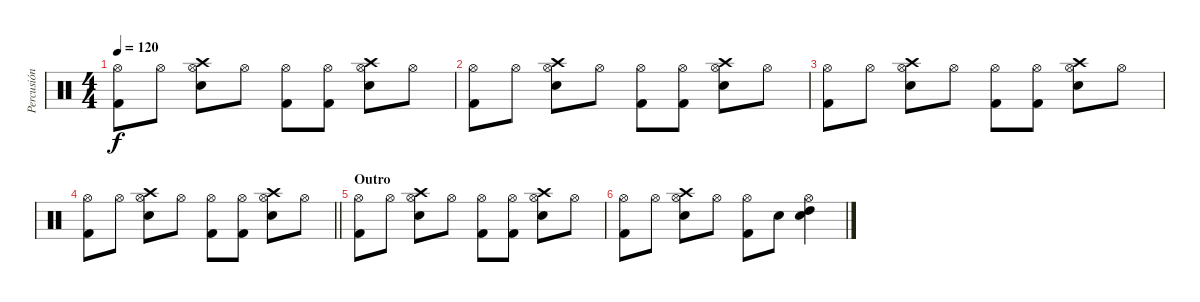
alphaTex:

\track ("Percusión" "Percusión") {instrument percussion}
\staff {score}
\articulation defaults
\ts (4 4)
\tempo 120
\clef neutral
\ks c
("Hi-Hat (open)" "Kick (hit) 2").8{dy f} "Hi-Hat (open)".8 ("Hi-Hat (open)" "Electric Snare (hit)" "Crash high (hit)").8 "Hi-Hat (open)".8 ("Hi-Hat (open)" "Kick (hit) 2").8 ("Hi-Hat (open)" "Kick (hit) 2").8 ("Hi-Hat (open)" "Electric Snare (hit)" "Crash high (hit)").8 "Hi-Hat (open)".8 |
("Hi-Hat (open)" "Kick (hit) 2").8 "Hi-Hat (open)".8 ("Hi-Hat (open)" "Electric Snare (hit)" "Crash high (hit)").8 "Hi-Hat (open)".8 ("Hi-Hat (open)" "Kick (hit) 2").8 ("Hi-Hat (open)" "Kick (hit) 2").8 ("Hi-Hat (open)" "Electric Snare (hit)" "Crash high (hit)").8 "Hi-Hat (open)".8 |
("Hi-Hat (open)" "Kick (hit) 2").8 "Hi-Hat (open)".8 ("Hi-Hat (open)" "Electric Snare (hit)" "Crash high (hit)").8 "Hi-Hat (open)".8 ("Hi-Hat (open)" "Kick (hit) 2").8 ("Hi-Hat (open)" "Kick (hit) 2").8 ("Hi-Hat (open)" "Electric Snare (hit)" "Crash high (hit)").8 "Hi-Hat (open)".8 |
\barLineRight lightlight
("Hi-Hat (open)" "Kick (hit) 2").8 "Hi-Hat (open)".8 ("Hi-Hat (open)" "Electric Snare (hit)" "Crash high (hit)").8 "Hi-Hat (open)".8 ("Hi-Hat (open)" "Kick (hit) 2").8 ("Hi-Hat (open)" "Kick (hit) 2").8 ("Hi-Hat (open)" "Electric Snare (hit)" "Crash high (hit)").8 "Hi-Hat (open)".8 |
\section ("" "Outro")
("Hi-Hat (open)" "Kick (hit) 2").8 "Hi-Hat (open)".8 ("Hi-Hat (open)" "Electric Snare (hit)" "Crash high (hit)").8 "Hi-Hat (open)".8 ("Hi-Hat (open)" "Kick (hit) 2").8 ("Hi-Hat (open)" "Kick (hit) 2").8 ("Hi-Hat (open)" "Electric Snare (hit)" "Crash high (hit)").8 "Hi-Hat (open)".8 |
("Hi-Hat (open)" "Kick (hit) 2").8 "Hi-Hat (open)".8 ("Hi-Hat (open)" "Electric Snare (hit)" "Crash high (hit)").8 "Hi-Hat (open)".8 ("Hi-Hat (open)" "Kick (hit) 2").8 "Snare (hit) 2".8 ("Hi-Hat (open)" "Electric Snare (hit)" "High Tom (hit)").4
